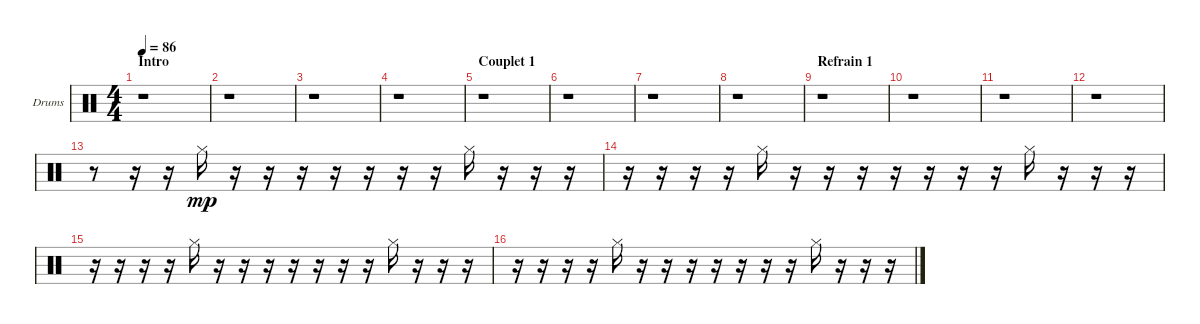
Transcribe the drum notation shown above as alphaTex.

\bracketExtendMode groupsimilarinstruments
\firstSystemTrackNameOrientation horizontal
\otherSystemsTrackNameOrientation horizontal
\track ("Drumkit" "Drums") {instrument percussion}
\staff {score}
\articulation defaults
\ts (4 4)
\section ("" "Intro")
\tempo 86
\clef neutral
\ks c
r.1{dy mp} |
r.1 |
r.1 |
r.1 |
\section ("" "Couplet 1")
r.1 |
r.1 |
r.1 |
r.1 |
\section ("" "Refrain 1")
r.1 |
r.1 |
r.1 |
r.1 |
r.8 r.16 r.16 "Hi-Hat (closed)".16 r.16 r.16 r.16 r.16 r.16 r.16 r.16 "Hi-Hat (closed)".16 r.16 r.16 r.16 |
r.16 r.16 r.16 r.16 "Hi-Hat (closed)".16 r.16 r.16 r.16 r.16 r.16 r.16 r.16 "Hi-Hat (closed)".16 r.16 r.16 r.16 |
r.16 r.16 r.16 r.16 "Hi-Hat (closed)".16 r.16 r.16 r.16 r.16 r.16 r.16 r.16 "Hi-Hat (closed)".16 r.16 r.16 r.16 |
r.16 r.16 r.16 r.16 "Hi-Hat (closed)".16 r.16 r.16 r.16 r.16 r.16 r.16 r.16 "Hi-Hat (closed)".16 r.16 r.16 r.16
